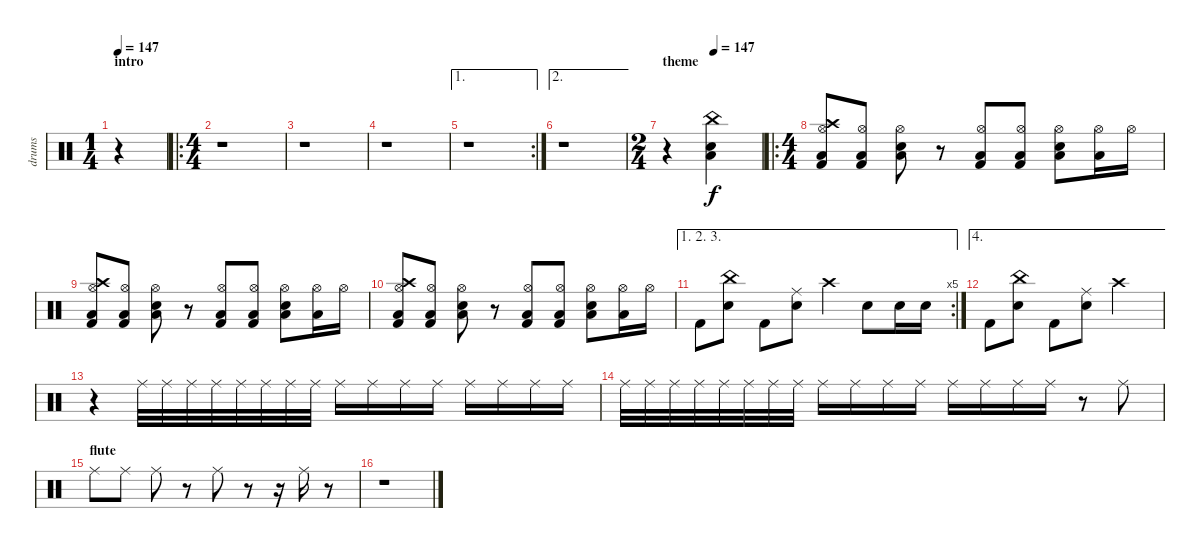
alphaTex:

\track ("drums" "drums") {instrument percussion}
\staff {score}
\articulation defaults
\ts (1 4)
\section ("" "intro")
\tempo 147
\tempo 105
\tempo 147
\clef neutral
\ks c
r.4{dy f} |
\ro
\ts (4 4)
r.1 |
r.1 |
r.1 |
\ae 1
\rc 2
r.1 |
\ae 2
r.1 |
\ts (2 4)
\section ("" "theme")
\tempo (147 0.5)
r.4 ("China (hit)" "Low Floor Tom (hit)" "Snare (hit) 2").4 |
\ro
\ts (4 4)
("Hi-Hat (open)" "Crash high (hit)" "Low Floor Tom (hit)" "Kick (hit) 2").8 ("Hi-Hat (open)" "Low Floor Tom (hit)" "Kick (hit) 2").8 ("Hi-Hat (open)" "Low Floor Tom (hit)" "Snare (hit) 2").8 r.8 ("Hi-Hat (open)" "Low Floor Tom (hit)" "Kick (hit) 2").8 ("Hi-Hat (open)" "Low Floor Tom (hit)" "Kick (hit) 2").8 ("Hi-Hat (open)" "Low Floor Tom (hit)" "Snare (hit) 2").8 ("Hi-Hat (open)" "Low Floor Tom (hit)").16 "Hi-Hat (open)".16 |
("Hi-Hat (open)" "Crash high (hit)" "Low Floor Tom (hit)" "Kick (hit) 2").8 ("Hi-Hat (open)" "Low Floor Tom (hit)" "Kick (hit) 2").8 ("Hi-Hat (open)" "Low Floor Tom (hit)" "Snare (hit) 2").8 r.8 ("Hi-Hat (open)" "Low Floor Tom (hit)" "Kick (hit) 2").8 ("Hi-Hat (open)" "Low Floor Tom (hit)" "Kick (hit) 2").8 ("Hi-Hat (open)" "Low Floor Tom (hit)" "Snare (hit) 2").8 ("Hi-Hat (open)" "Low Floor Tom (hit)").16 "Hi-Hat (open)".16 |
("Hi-Hat (open)" "Crash high (hit)" "Low Floor Tom (hit)" "Kick (hit) 2").8 ("Hi-Hat (open)" "Low Floor Tom (hit)" "Kick (hit) 2").8 ("Hi-Hat (open)" "Low Floor Tom (hit)" "Snare (hit) 2").8 r.8 ("Hi-Hat (open)" "Low Floor Tom (hit)" "Kick (hit) 2").8 ("Hi-Hat (open)" "Low Floor Tom (hit)" "Kick (hit) 2").8 ("Hi-Hat (open)" "Low Floor Tom (hit)" "Snare (hit) 2").8 ("Hi-Hat (open)" "Low Floor Tom (hit)").16 "Hi-Hat (open)".16 |
\ae (1 2 3)
\rc 5 "Kick (hit) 2".8
("China (hit)" "Snare (hit) 2").8 "Kick (hit) 2".8 ("Ride (middle)" "Snare (hit) 2").8 "Crash high (hit)".4 "Snare (hit) 2".8 "Snare (hit) 2".16 "Snare (hit) 2".16 |
\ae 4 "Kick (hit) 2".8
("China (hit)" "Snare (hit) 2").8 "Kick (hit) 2".8 ("Ride (middle)" "Snare (hit) 2").8 "Crash high (hit)".2 |
r.4 "Ride (middle)".32{volume 14} "Ride (middle)".32 "Ride (middle)".32 "Ride (middle)".32 "Ride (middle)".32 "Ride (middle)".32 "Ride (middle)".32 "Ride (middle)".32 "Ride (middle)".16{volume 8} "Ride (middle)".16 "Ride (middle)".16 "Ride (middle)".16 "Ride (middle)".16 "Ride (middle)".16 "Ride (middle)".16 "Ride (middle)".16 |
"Ride (middle)".32 "Ride (middle)".32 "Ride (middle)".32 "Ride (middle)".32 "Ride (middle)".32 "Ride (middle)".32 "Ride (middle)".32 "Ride (middle)".32 "Ride (middle)".16 "Ride (middle)".16 "Ride (middle)".16 "Ride (middle)".16 "Ride (middle)".16 "Ride (middle)".16 "Ride (middle)".16 "Ride (middle)".16 r.8 "Ride (middle)".8{volume 8} |
\section ("" "flute")
"Ride (middle)".8 "Ride (middle)".8 "Ride (middle)".8 r.8 "Ride (middle)".8{volume 8} r.8 r.16 "Ride (middle)".16 r.8 |
r.1
